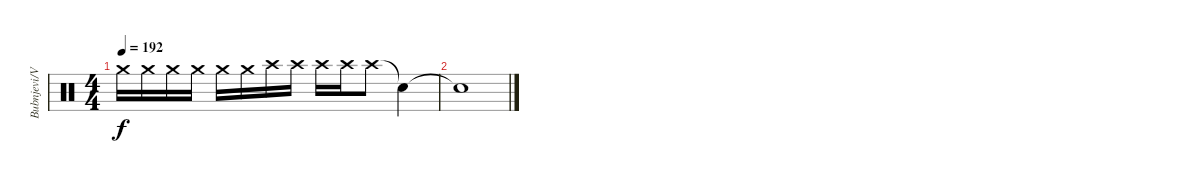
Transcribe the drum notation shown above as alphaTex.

\track ("Bubnjevi/Vestac Tlacitelj" "Bubnjevi/V") {instrument percussion}
\staff {score}
\articulation defaults
\ts (4 4)
\tempo 192
\clef neutral
\ks c "Crash medium (hit)".16{dy f} "Crash medium (hit)".16 "Crash medium (hit)".16 "Crash medium (hit)".16 "Crash medium (hit)".16 "Crash medium (hit)".16 "Crash high (hit)".16 "Crash high (hit)".16 "Crash high (hit)".16 "Crash high (hit)".16 "Crash high (hit)".8 "Snare (hit)"{t}.4
|
"Snare (hit)"{t}.1
